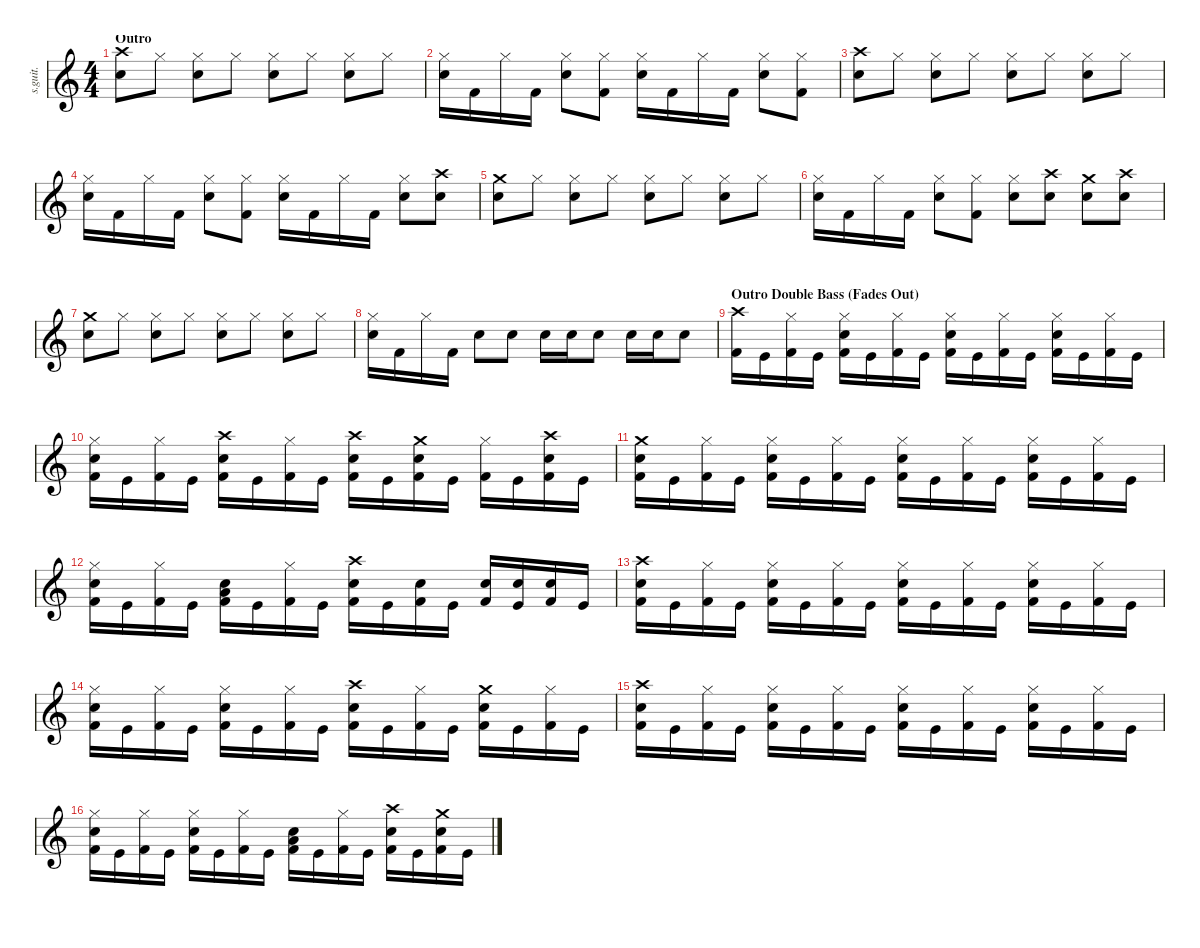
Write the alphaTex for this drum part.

\defaultSystemsLayout 4
\hideDynamics
\bracketExtendMode nobrackets
\track ("Drumkit" "s.guit.") {instrument percussion}
\staff {score}
\articulation defaults
\ts (4 4)
\section ("" "Outro")
\tempo (130 hide)
\clef g2
\ks c
("Crash high (hit)" "Snare (hit) 2").8{lyrics (0 "") lyrics (1 "") lyrics (2 "") lyrics (3 "") lyrics (4 "") dy f} "Hi-Hat (closed)".8{lyrics (0 "") lyrics (1 "") lyrics (2 "") lyrics (3 "") lyrics (4 "")} ("Hi-Hat (closed)" "Snare (hit) 2").8{lyrics (0 "") lyrics (1 "") lyrics (2 "") lyrics (3 "") lyrics (4 "")} "Hi-Hat (closed)".8{lyrics (0 "") lyrics (1 "") lyrics (2 "") lyrics (3 "") lyrics (4 "")} ("Hi-Hat (closed)" "Snare (hit) 2").8{lyrics (0 "") lyrics (1 "") lyrics (2 "") lyrics (3 "") lyrics (4 "")} "Hi-Hat (closed)".8{lyrics (0 "") lyrics (1 "") lyrics (2 "") lyrics (3 "") lyrics (4 "")} ("Hi-Hat (closed)" "Snare (hit) 2").8{lyrics (0 "") lyrics (1 "") lyrics (2 "") lyrics (3 "") lyrics (4 "")} "Hi-Hat (closed)".8{lyrics (0 "") lyrics (1 "") lyrics (2 "") lyrics (3 "") lyrics (4 "")} |
("Hi-Hat (closed)" "Snare (hit) 2").16{lyrics (0 "") lyrics (1 "") lyrics (2 "") lyrics (3 "") lyrics (4 "")} "Kick (hit) 2".16{lyrics (0 "") lyrics (1 "") lyrics (2 "") lyrics (3 "") lyrics (4 "")} "Hi-Hat (closed)".16{lyrics (0 "") lyrics (1 "") lyrics (2 "") lyrics (3 "") lyrics (4 "")} "Kick (hit) 2".16{lyrics (0 "") lyrics (1 "") lyrics (2 "") lyrics (3 "") lyrics (4 "")} ("Hi-Hat (closed)" "Snare (hit) 2").8{lyrics (0 "") lyrics (1 "") lyrics (2 "") lyrics (3 "") lyrics (4 "")} ("Hi-Hat (closed)" "Kick (hit) 2").8{lyrics (0 "") lyrics (1 "") lyrics (2 "") lyrics (3 "") lyrics (4 "")} ("Hi-Hat (closed)" "Snare (hit) 2").16{lyrics (0 "") lyrics (1 "") lyrics (2 "") lyrics (3 "") lyrics (4 "")} "Kick (hit) 2".16{lyrics (0 "") lyrics (1 "") lyrics (2 "") lyrics (3 "") lyrics (4 "")} "Hi-Hat (closed)".16{lyrics (0 "") lyrics (1 "") lyrics (2 "") lyrics (3 "") lyrics (4 "")} "Kick (hit) 2".16{lyrics (0 "") lyrics (1 "") lyrics (2 "") lyrics (3 "") lyrics (4 "")} ("Hi-Hat (closed)" "Snare (hit) 2").8{lyrics (0 "") lyrics (1 "") lyrics (2 "") lyrics (3 "") lyrics (4 "")} ("Hi-Hat (closed)" "Kick (hit) 2").8{lyrics (0 "") lyrics (1 "") lyrics (2 "") lyrics (3 "") lyrics (4 "")} |
("Crash high (hit)" "Snare (hit) 2").8{lyrics (0 "") lyrics (1 "") lyrics (2 "") lyrics (3 "") lyrics (4 "")} "Hi-Hat (closed)".8{lyrics (0 "") lyrics (1 "") lyrics (2 "") lyrics (3 "") lyrics (4 "")} ("Hi-Hat (closed)" "Snare (hit) 2").8{lyrics (0 "") lyrics (1 "") lyrics (2 "") lyrics (3 "") lyrics (4 "")} "Hi-Hat (closed)".8{lyrics (0 "") lyrics (1 "") lyrics (2 "") lyrics (3 "") lyrics (4 "")} ("Hi-Hat (closed)" "Snare (hit) 2").8{lyrics (0 "") lyrics (1 "") lyrics (2 "") lyrics (3 "") lyrics (4 "")} "Hi-Hat (closed)".8{lyrics (0 "") lyrics (1 "") lyrics (2 "") lyrics (3 "") lyrics (4 "")} ("Hi-Hat (closed)" "Snare (hit) 2").8{lyrics (0 "") lyrics (1 "") lyrics (2 "") lyrics (3 "") lyrics (4 "")} "Hi-Hat (closed)".8{lyrics (0 "") lyrics (1 "") lyrics (2 "") lyrics (3 "") lyrics (4 "")} |
("Hi-Hat (closed)" "Snare (hit) 2").16{lyrics (0 "") lyrics (1 "") lyrics (2 "") lyrics (3 "") lyrics (4 "")} "Kick (hit) 2".16{lyrics (0 "") lyrics (1 "") lyrics (2 "") lyrics (3 "") lyrics (4 "")} "Hi-Hat (closed)".16{lyrics (0 "") lyrics (1 "") lyrics (2 "") lyrics (3 "") lyrics (4 "")} "Kick (hit) 2".16{lyrics (0 "") lyrics (1 "") lyrics (2 "") lyrics (3 "") lyrics (4 "")} ("Hi-Hat (closed)" "Snare (hit) 2").8{lyrics (0 "") lyrics (1 "") lyrics (2 "") lyrics (3 "") lyrics (4 "")} ("Hi-Hat (closed)" "Kick (hit) 2").8{lyrics (0 "") lyrics (1 "") lyrics (2 "") lyrics (3 "") lyrics (4 "")} ("Hi-Hat (closed)" "Snare (hit) 2").16{lyrics (0 "") lyrics (1 "") lyrics (2 "") lyrics (3 "") lyrics (4 "")} "Kick (hit) 2".16{lyrics (0 "") lyrics (1 "") lyrics (2 "") lyrics (3 "") lyrics (4 "")} "Hi-Hat (closed)".16{lyrics (0 "") lyrics (1 "") lyrics (2 "") lyrics (3 "") lyrics (4 "")} "Kick (hit) 2".16{lyrics (0 "") lyrics (1 "") lyrics (2 "") lyrics (3 "") lyrics (4 "")} ("Hi-Hat (closed)" "Snare (hit) 2").8{lyrics (0 "") lyrics (1 "") lyrics (2 "") lyrics (3 "") lyrics (4 "")} ("Crash high (hit)" "Snare (hit) 2").8{lyrics (0 "") lyrics (1 "") lyrics (2 "") lyrics (3 "") lyrics (4 "")} |
("Crash medium (hit)" "Snare (hit) 2").8{lyrics (0 "") lyrics (1 "") lyrics (2 "") lyrics (3 "") lyrics (4 "")} "Hi-Hat (closed)".8{lyrics (0 "") lyrics (1 "") lyrics (2 "") lyrics (3 "") lyrics (4 "")} ("Hi-Hat (closed)" "Snare (hit) 2").8{lyrics (0 "") lyrics (1 "") lyrics (2 "") lyrics (3 "") lyrics (4 "")} "Hi-Hat (closed)".8{lyrics (0 "") lyrics (1 "") lyrics (2 "") lyrics (3 "") lyrics (4 "")} ("Hi-Hat (closed)" "Snare (hit) 2").8{lyrics (0 "") lyrics (1 "") lyrics (2 "") lyrics (3 "") lyrics (4 "")} "Hi-Hat (closed)".8{lyrics (0 "") lyrics (1 "") lyrics (2 "") lyrics (3 "") lyrics (4 "")} ("Hi-Hat (closed)" "Snare (hit) 2").8{lyrics (0 "") lyrics (1 "") lyrics (2 "") lyrics (3 "") lyrics (4 "")} "Hi-Hat (closed)".8{lyrics (0 "") lyrics (1 "") lyrics (2 "") lyrics (3 "") lyrics (4 "")} |
("Hi-Hat (closed)" "Snare (hit) 2").16{lyrics (0 "") lyrics (1 "") lyrics (2 "") lyrics (3 "") lyrics (4 "")} "Kick (hit) 2".16{lyrics (0 "") lyrics (1 "") lyrics (2 "") lyrics (3 "") lyrics (4 "")} "Hi-Hat (closed)".16{lyrics (0 "") lyrics (1 "") lyrics (2 "") lyrics (3 "") lyrics (4 "")} "Kick (hit) 2".16{lyrics (0 "") lyrics (1 "") lyrics (2 "") lyrics (3 "") lyrics (4 "")} ("Hi-Hat (closed)" "Snare (hit) 2").8{lyrics (0 "") lyrics (1 "") lyrics (2 "") lyrics (3 "") lyrics (4 "")} ("Hi-Hat (closed)" "Kick (hit) 2").8{lyrics (0 "") lyrics (1 "") lyrics (2 "") lyrics (3 "") lyrics (4 "")} ("Hi-Hat (closed)" "Snare (hit) 2").8{lyrics (0 "") lyrics (1 "") lyrics (2 "") lyrics (3 "") lyrics (4 "")} ("Crash high (hit)" "Snare (hit) 2").8{lyrics (0 "") lyrics (1 "") lyrics (2 "") lyrics (3 "") lyrics (4 "")} ("Crash medium (hit)" "Snare (hit) 2").8{lyrics (0 "") lyrics (1 "") lyrics (2 "") lyrics (3 "") lyrics (4 "")} ("Crash high (hit)" "Snare (hit) 2").8{lyrics (0 "") lyrics (1 "") lyrics (2 "") lyrics (3 "") lyrics (4 "")} |
("Crash medium (hit)" "Snare (hit) 2").8{lyrics (0 "") lyrics (1 "") lyrics (2 "") lyrics (3 "") lyrics (4 "")} "Hi-Hat (closed)".8{lyrics (0 "") lyrics (1 "") lyrics (2 "") lyrics (3 "") lyrics (4 "")} ("Hi-Hat (closed)" "Snare (hit) 2").8{lyrics (0 "") lyrics (1 "") lyrics (2 "") lyrics (3 "") lyrics (4 "")} "Hi-Hat (closed)".8{lyrics (0 "") lyrics (1 "") lyrics (2 "") lyrics (3 "") lyrics (4 "")} ("Hi-Hat (closed)" "Snare (hit) 2").8{lyrics (0 "") lyrics (1 "") lyrics (2 "") lyrics (3 "") lyrics (4 "")} "Hi-Hat (closed)".8{lyrics (0 "") lyrics (1 "") lyrics (2 "") lyrics (3 "") lyrics (4 "")} ("Hi-Hat (closed)" "Snare (hit) 2").8{lyrics (0 "") lyrics (1 "") lyrics (2 "") lyrics (3 "") lyrics (4 "")} "Hi-Hat (closed)".8{lyrics (0 "") lyrics (1 "") lyrics (2 "") lyrics (3 "") lyrics (4 "")} |
("Hi-Hat (closed)" "Snare (hit) 2").16{lyrics (0 "") lyrics (1 "") lyrics (2 "") lyrics (3 "") lyrics (4 "")} "Kick (hit) 2".16{lyrics (0 "") lyrics (1 "") lyrics (2 "") lyrics (3 "") lyrics (4 "")} "Hi-Hat (closed)".16{lyrics (0 "") lyrics (1 "") lyrics (2 "") lyrics (3 "") lyrics (4 "")} "Kick (hit) 2".16{lyrics (0 "") lyrics (1 "") lyrics (2 "") lyrics (3 "") lyrics (4 "")} "Snare (hit) 2".8{lyrics (0 "") lyrics (1 "") lyrics (2 "") lyrics (3 "") lyrics (4 "")} "Snare (hit) 2".8{lyrics (0 "") lyrics (1 "") lyrics (2 "") lyrics (3 "") lyrics (4 "")} "Snare (hit) 2".16{lyrics (0 "") lyrics (1 "") lyrics (2 "") lyrics (3 "") lyrics (4 "")} "Snare (hit) 2".16{lyrics (0 "") lyrics (1 "") lyrics (2 "") lyrics (3 "") lyrics (4 "")} "Snare (hit) 2".8{lyrics (0 "") lyrics (1 "") lyrics (2 "") lyrics (3 "") lyrics (4 "")} "Snare (hit) 2".16{lyrics (0 "") lyrics (1 "") lyrics (2 "") lyrics (3 "") lyrics (4 "")} "Snare (hit) 2".16{lyrics (0 "") lyrics (1 "") lyrics (2 "") lyrics (3 "") lyrics (4 "")} "Snare (hit) 2".8{lyrics (0 "") lyrics (1 "") lyrics (2 "") lyrics (3 "") lyrics (4 "")} |
\section ("" "Outro Double Bass (Fades Out)")
("Crash high (hit)" "Kick (hit) 2").16{lyrics (0 "") lyrics (1 "") lyrics (2 "") lyrics (3 "") lyrics (4 "")} "Kick (hit)".16{lyrics (0 "") lyrics (1 "") lyrics (2 "") lyrics (3 "") lyrics (4 "")} ("Hi-Hat (closed)" "Kick (hit) 2").16{lyrics (0 "") lyrics (1 "") lyrics (2 "") lyrics (3 "") lyrics (4 "")} "Kick (hit)".16{lyrics (0 "") lyrics (1 "") lyrics (2 "") lyrics (3 "") lyrics (4 "")} ("Hi-Hat (closed)" "Snare (hit) 2" "Kick (hit) 2").16{lyrics (0 "") lyrics (1 "") lyrics (2 "") lyrics (3 "") lyrics (4 "")} "Kick (hit)".16{lyrics (0 "") lyrics (1 "") lyrics (2 "") lyrics (3 "") lyrics (4 "")} ("Hi-Hat (closed)" "Kick (hit) 2").16{lyrics (0 "") lyrics (1 "") lyrics (2 "") lyrics (3 "") lyrics (4 "")} "Kick (hit)".16{lyrics (0 "") lyrics (1 "") lyrics (2 "") lyrics (3 "") lyrics (4 "")} ("Hi-Hat (closed)" "Snare (hit) 2" "Kick (hit) 2").16{lyrics (0 "") lyrics (1 "") lyrics (2 "") lyrics (3 "") lyrics (4 "")} "Kick (hit)".16{lyrics (0 "") lyrics (1 "") lyrics (2 "") lyrics (3 "") lyrics (4 "")} ("Hi-Hat (closed)" "Kick (hit) 2").16{lyrics (0 "") lyrics (1 "") lyrics (2 "") lyrics (3 "") lyrics (4 "")} "Kick (hit)".16{lyrics (0 "") lyrics (1 "") lyrics (2 "") lyrics (3 "") lyrics (4 "")} ("Hi-Hat (closed)" "Snare (hit) 2" "Kick (hit) 2").16{lyrics (0 "") lyrics (1 "") lyrics (2 "") lyrics (3 "") lyrics (4 "")} "Kick (hit)".16{lyrics (0 "") lyrics (1 "") lyrics (2 "") lyrics (3 "") lyrics (4 "")} ("Hi-Hat (closed)" "Kick (hit) 2").16{lyrics (0 "") lyrics (1 "") lyrics (2 "") lyrics (3 "") lyrics (4 "")} "Kick (hit)".16{lyrics (0 "") lyrics (1 "") lyrics (2 "") lyrics (3 "") lyrics (4 "")} |
("Hi-Hat (closed)" "Snare (hit) 2" "Kick (hit) 2").16{lyrics (0 "") lyrics (1 "") lyrics (2 "") lyrics (3 "") lyrics (4 "")} "Kick (hit)".16{lyrics (0 "") lyrics (1 "") lyrics (2 "") lyrics (3 "") lyrics (4 "")} ("Hi-Hat (closed)" "Kick (hit) 2").16{lyrics (0 "") lyrics (1 "") lyrics (2 "") lyrics (3 "") lyrics (4 "")} "Kick (hit)".16{lyrics (0 "") lyrics (1 "") lyrics (2 "") lyrics (3 "") lyrics (4 "")} ("Crash high (hit)" "Snare (hit) 2" "Kick (hit) 2").16{lyrics (0 "") lyrics (1 "") lyrics (2 "") lyrics (3 "") lyrics (4 "")} "Kick (hit)".16{lyrics (0 "") lyrics (1 "") lyrics (2 "") lyrics (3 "") lyrics (4 "")} ("Hi-Hat (closed)" "Kick (hit) 2").16{lyrics (0 "") lyrics (1 "") lyrics (2 "") lyrics (3 "") lyrics (4 "")} "Kick (hit)".16{lyrics (0 "") lyrics (1 "") lyrics (2 "") lyrics (3 "") lyrics (4 "")} ("Crash high (hit)" "Snare (hit) 2" "Kick (hit) 2").16{lyrics (0 "") lyrics (1 "") lyrics (2 "") lyrics (3 "") lyrics (4 "")} "Kick (hit)".16{lyrics (0 "") lyrics (1 "") lyrics (2 "") lyrics (3 "") lyrics (4 "")} ("Crash medium (hit)" "Snare (hit) 2" "Kick (hit) 2").16{lyrics (0 "") lyrics (1 "") lyrics (2 "") lyrics (3 "") lyrics (4 "")} "Kick (hit)".16{lyrics (0 "") lyrics (1 "") lyrics (2 "") lyrics (3 "") lyrics (4 "")} ("Hi-Hat (closed)" "Kick (hit) 2").16{lyrics (0 "") lyrics (1 "") lyrics (2 "") lyrics (3 "") lyrics (4 "")} "Kick (hit)".16{lyrics (0 "") lyrics (1 "") lyrics (2 "") lyrics (3 "") lyrics (4 "")} ("Crash high (hit)" "Snare (hit) 2" "Kick (hit) 2").16{lyrics (0 "") lyrics (1 "") lyrics (2 "") lyrics (3 "") lyrics (4 "")} "Kick (hit)".16{lyrics (0 "") lyrics (1 "") lyrics (2 "") lyrics (3 "") lyrics (4 "")} |
("Crash medium (hit)" "Snare (hit) 2" "Kick (hit) 2").16{lyrics (0 "") lyrics (1 "") lyrics (2 "") lyrics (3 "") lyrics (4 "")} "Kick (hit)".16{lyrics (0 "") lyrics (1 "") lyrics (2 "") lyrics (3 "") lyrics (4 "")} ("Hi-Hat (closed)" "Kick (hit) 2").16{lyrics (0 "") lyrics (1 "") lyrics (2 "") lyrics (3 "") lyrics (4 "")} "Kick (hit)".16{lyrics (0 "") lyrics (1 "") lyrics (2 "") lyrics (3 "") lyrics (4 "")} ("Hi-Hat (closed)" "Snare (hit) 2" "Kick (hit) 2").16{lyrics (0 "") lyrics (1 "") lyrics (2 "") lyrics (3 "") lyrics (4 "")} "Kick (hit)".16{lyrics (0 "") lyrics (1 "") lyrics (2 "") lyrics (3 "") lyrics (4 "")} ("Hi-Hat (closed)" "Kick (hit) 2").16{lyrics (0 "") lyrics (1 "") lyrics (2 "") lyrics (3 "") lyrics (4 "")} "Kick (hit)".16{lyrics (0 "") lyrics (1 "") lyrics (2 "") lyrics (3 "") lyrics (4 "")} ("Hi-Hat (closed)" "Snare (hit) 2" "Kick (hit) 2").16{lyrics (0 "") lyrics (1 "") lyrics (2 "") lyrics (3 "") lyrics (4 "")} "Kick (hit)".16{lyrics (0 "") lyrics (1 "") lyrics (2 "") lyrics (3 "") lyrics (4 "")} ("Hi-Hat (closed)" "Kick (hit) 2").16{lyrics (0 "") lyrics (1 "") lyrics (2 "") lyrics (3 "") lyrics (4 "")} "Kick (hit)".16{lyrics (0 "") lyrics (1 "") lyrics (2 "") lyrics (3 "") lyrics (4 "")} ("Hi-Hat (closed)" "Snare (hit) 2" "Kick (hit) 2").16{lyrics (0 "") lyrics (1 "") lyrics (2 "") lyrics (3 "") lyrics (4 "")} "Kick (hit)".16{lyrics (0 "") lyrics (1 "") lyrics (2 "") lyrics (3 "") lyrics (4 "")} ("Hi-Hat (closed)" "Kick (hit) 2").16{lyrics (0 "") lyrics (1 "") lyrics (2 "") lyrics (3 "") lyrics (4 "")} "Kick (hit)".16{lyrics (0 "") lyrics (1 "") lyrics (2 "") lyrics (3 "") lyrics (4 "")} |
("Hi-Hat (closed)" "Snare (hit) 2" "Kick (hit) 2").16{lyrics (0 "") lyrics (1 "") lyrics (2 "") lyrics (3 "") lyrics (4 "")} "Kick (hit)".16{lyrics (0 "") lyrics (1 "") lyrics (2 "") lyrics (3 "") lyrics (4 "")} ("Hi-Hat (closed)" "Kick (hit) 2").16{lyrics (0 "") lyrics (1 "") lyrics (2 "") lyrics (3 "") lyrics (4 "")} "Kick (hit)".16{lyrics (0 "") lyrics (1 "") lyrics (2 "") lyrics (3 "") lyrics (4 "")} ("Low Tom (hit)" "Snare (hit) 2" "Kick (hit) 2").16{lyrics (0 "") lyrics (1 "") lyrics (2 "") lyrics (3 "") lyrics (4 "")} "Kick (hit)".16{lyrics (0 "") lyrics (1 "") lyrics (2 "") lyrics (3 "") lyrics (4 "")} ("Hi-Hat (closed)" "Kick (hit) 2").16{lyrics (0 "") lyrics (1 "") lyrics (2 "") lyrics (3 "") lyrics (4 "")} "Kick (hit)".16{lyrics (0 "") lyrics (1 "") lyrics (2 "") lyrics (3 "") lyrics (4 "")} ("Crash high (hit)" "Snare (hit) 2" "Kick (hit) 2").16{lyrics (0 "") lyrics (1 "") lyrics (2 "") lyrics (3 "") lyrics (4 "")} "Kick (hit)".16{lyrics (0 "") lyrics (1 "") lyrics (2 "") lyrics (3 "") lyrics (4 "")} ("Snare (hit) 2" "Kick (hit) 2").16{lyrics (0 "") lyrics (1 "") lyrics (2 "") lyrics (3 "") lyrics (4 "")} "Kick (hit)".16{lyrics (0 "") lyrics (1 "") lyrics (2 "") lyrics (3 "") lyrics (4 "")} ("Snare (hit) 2" "Kick (hit) 2").16{lyrics (0 "") lyrics (1 "") lyrics (2 "") lyrics (3 "") lyrics (4 "")} ("Snare (hit) 2" "Kick (hit)").16{lyrics (0 "") lyrics (1 "") lyrics (2 "") lyrics (3 "") lyrics (4 "")} ("Snare (hit) 2" "Kick (hit) 2").16{lyrics (0 "") lyrics (1 "") lyrics (2 "") lyrics (3 "") lyrics (4 "")} "Kick (hit)".16{lyrics (0 "") lyrics (1 "") lyrics (2 "") lyrics (3 "") lyrics (4 "")} |
("Crash high (hit)" "Snare (hit) 2" "Kick (hit) 2").16{lyrics (0 "") lyrics (1 "") lyrics (2 "") lyrics (3 "") lyrics (4 "")} "Kick (hit)".16{lyrics (0 "") lyrics (1 "") lyrics (2 "") lyrics (3 "") lyrics (4 "")} ("Hi-Hat (closed)" "Kick (hit) 2").16{lyrics (0 "") lyrics (1 "") lyrics (2 "") lyrics (3 "") lyrics (4 "")} "Kick (hit)".16{lyrics (0 "") lyrics (1 "") lyrics (2 "") lyrics (3 "") lyrics (4 "")} ("Hi-Hat (closed)" "Snare (hit) 2" "Kick (hit) 2").16{lyrics (0 "") lyrics (1 "") lyrics (2 "") lyrics (3 "") lyrics (4 "")} "Kick (hit)".16{lyrics (0 "") lyrics (1 "") lyrics (2 "") lyrics (3 "") lyrics (4 "")} ("Hi-Hat (closed)" "Kick (hit) 2").16{lyrics (0 "") lyrics (1 "") lyrics (2 "") lyrics (3 "") lyrics (4 "")} "Kick (hit)".16{lyrics (0 "") lyrics (1 "") lyrics (2 "") lyrics (3 "") lyrics (4 "")} ("Hi-Hat (closed)" "Snare (hit) 2" "Kick (hit) 2").16{lyrics (0 "") lyrics (1 "") lyrics (2 "") lyrics (3 "") lyrics (4 "")} "Kick (hit)".16{lyrics (0 "") lyrics (1 "") lyrics (2 "") lyrics (3 "") lyrics (4 "")} ("Hi-Hat (closed)" "Kick (hit) 2").16{lyrics (0 "") lyrics (1 "") lyrics (2 "") lyrics (3 "") lyrics (4 "")} "Kick (hit)".16{lyrics (0 "") lyrics (1 "") lyrics (2 "") lyrics (3 "") lyrics (4 "")} ("Hi-Hat (closed)" "Snare (hit) 2" "Kick (hit) 2").16{lyrics (0 "") lyrics (1 "") lyrics (2 "") lyrics (3 "") lyrics (4 "")} "Kick (hit)".16{lyrics (0 "") lyrics (1 "") lyrics (2 "") lyrics (3 "") lyrics (4 "")} ("Hi-Hat (closed)" "Kick (hit) 2").16{lyrics (0 "") lyrics (1 "") lyrics (2 "") lyrics (3 "") lyrics (4 "")} "Kick (hit)".16{lyrics (0 "") lyrics (1 "") lyrics (2 "") lyrics (3 "") lyrics (4 "")} |
("Hi-Hat (closed)" "Snare (hit) 2" "Kick (hit) 2").16{lyrics (0 "") lyrics (1 "") lyrics (2 "") lyrics (3 "") lyrics (4 "")} "Kick (hit)".16{lyrics (0 "") lyrics (1 "") lyrics (2 "") lyrics (3 "") lyrics (4 "")} ("Hi-Hat (closed)" "Kick (hit) 2").16{lyrics (0 "") lyrics (1 "") lyrics (2 "") lyrics (3 "") lyrics (4 "")} "Kick (hit)".16{lyrics (0 "") lyrics (1 "") lyrics (2 "") lyrics (3 "") lyrics (4 "")} ("Hi-Hat (closed)" "Snare (hit) 2" "Kick (hit) 2").16{lyrics (0 "") lyrics (1 "") lyrics (2 "") lyrics (3 "") lyrics (4 "")} "Kick (hit)".16{lyrics (0 "") lyrics (1 "") lyrics (2 "") lyrics (3 "") lyrics (4 "")} ("Hi-Hat (closed)" "Kick (hit) 2").16{lyrics (0 "") lyrics (1 "") lyrics (2 "") lyrics (3 "") lyrics (4 "")} "Kick (hit)".16{lyrics (0 "") lyrics (1 "") lyrics (2 "") lyrics (3 "") lyrics (4 "")} ("Crash high (hit)" "Snare (hit) 2" "Kick (hit) 2").16{lyrics (0 "") lyrics (1 "") lyrics (2 "") lyrics (3 "") lyrics (4 "")} "Kick (hit)".16{lyrics (0 "") lyrics (1 "") lyrics (2 "") lyrics (3 "") lyrics (4 "")} ("Hi-Hat (closed)" "Kick (hit) 2").16{lyrics (0 "") lyrics (1 "") lyrics (2 "") lyrics (3 "") lyrics (4 "")} "Kick (hit)".16{lyrics (0 "") lyrics (1 "") lyrics (2 "") lyrics (3 "") lyrics (4 "")} ("Crash medium (hit)" "Snare (hit) 2" "Kick (hit) 2").16{lyrics (0 "") lyrics (1 "") lyrics (2 "") lyrics (3 "") lyrics (4 "")} "Kick (hit)".16{lyrics (0 "") lyrics (1 "") lyrics (2 "") lyrics (3 "") lyrics (4 "")} ("Hi-Hat (closed)" "Kick (hit) 2").16{lyrics (0 "") lyrics (1 "") lyrics (2 "") lyrics (3 "") lyrics (4 "")} "Kick (hit)".16{lyrics (0 "") lyrics (1 "") lyrics (2 "") lyrics (3 "") lyrics (4 "")} |
("Crash high (hit)" "Snare (hit) 2" "Kick (hit) 2").16{lyrics (0 "") lyrics (1 "") lyrics (2 "") lyrics (3 "") lyrics (4 "")} "Kick (hit)".16{lyrics (0 "") lyrics (1 "") lyrics (2 "") lyrics (3 "") lyrics (4 "")} ("Hi-Hat (closed)" "Kick (hit) 2").16{lyrics (0 "") lyrics (1 "") lyrics (2 "") lyrics (3 "") lyrics (4 "")} "Kick (hit)".16{lyrics (0 "") lyrics (1 "") lyrics (2 "") lyrics (3 "") lyrics (4 "")} ("Hi-Hat (closed)" "Snare (hit) 2" "Kick (hit) 2").16{lyrics (0 "") lyrics (1 "") lyrics (2 "") lyrics (3 "") lyrics (4 "")} "Kick (hit)".16{lyrics (0 "") lyrics (1 "") lyrics (2 "") lyrics (3 "") lyrics (4 "")} ("Hi-Hat (closed)" "Kick (hit) 2").16{lyrics (0 "") lyrics (1 "") lyrics (2 "") lyrics (3 "") lyrics (4 "")} "Kick (hit)".16{lyrics (0 "") lyrics (1 "") lyrics (2 "") lyrics (3 "") lyrics (4 "")} ("Hi-Hat (closed)" "Snare (hit) 2" "Kick (hit) 2").16{lyrics (0 "") lyrics (1 "") lyrics (2 "") lyrics (3 "") lyrics (4 "")} "Kick (hit)".16{lyrics (0 "") lyrics (1 "") lyrics (2 "") lyrics (3 "") lyrics (4 "")} ("Hi-Hat (closed)" "Kick (hit) 2").16{lyrics (0 "") lyrics (1 "") lyrics (2 "") lyrics (3 "") lyrics (4 "")} "Kick (hit)".16{lyrics (0 "") lyrics (1 "") lyrics (2 "") lyrics (3 "") lyrics (4 "")} ("Hi-Hat (closed)" "Snare (hit) 2" "Kick (hit) 2").16{lyrics (0 "") lyrics (1 "") lyrics (2 "") lyrics (3 "") lyrics (4 "")} "Kick (hit)".16{lyrics (0 "") lyrics (1 "") lyrics (2 "") lyrics (3 "") lyrics (4 "")} ("Hi-Hat (closed)" "Kick (hit) 2").16{lyrics (0 "") lyrics (1 "") lyrics (2 "") lyrics (3 "") lyrics (4 "")} "Kick (hit)".16{lyrics (0 "") lyrics (1 "") lyrics (2 "") lyrics (3 "") lyrics (4 "")} |
("Hi-Hat (closed)" "Snare (hit) 2" "Kick (hit) 2").16{lyrics (0 "") lyrics (1 "") lyrics (2 "") lyrics (3 "") lyrics (4 "")} "Kick (hit)".16{lyrics (0 "") lyrics (1 "") lyrics (2 "") lyrics (3 "") lyrics (4 "")} ("Hi-Hat (closed)" "Kick (hit) 2").16{lyrics (0 "") lyrics (1 "") lyrics (2 "") lyrics (3 "") lyrics (4 "")} "Kick (hit)".16{lyrics (0 "") lyrics (1 "") lyrics (2 "") lyrics (3 "") lyrics (4 "")} ("Hi-Hat (closed)" "Snare (hit) 2" "Kick (hit) 2").16{lyrics (0 "") lyrics (1 "") lyrics (2 "") lyrics (3 "") lyrics (4 "")} "Kick (hit)".16{lyrics (0 "") lyrics (1 "") lyrics (2 "") lyrics (3 "") lyrics (4 "")} ("Hi-Hat (closed)" "Kick (hit) 2").16{lyrics (0 "") lyrics (1 "") lyrics (2 "") lyrics (3 "") lyrics (4 "")} "Kick (hit)".16{lyrics (0 "") lyrics (1 "") lyrics (2 "") lyrics (3 "") lyrics (4 "")} ("Low Tom (hit)" "Snare (hit) 2" "Kick (hit) 2").16{lyrics (0 "") lyrics (1 "") lyrics (2 "") lyrics (3 "") lyrics (4 "")} "Kick (hit)".16{lyrics (0 "") lyrics (1 "") lyrics (2 "") lyrics (3 "") lyrics (4 "")} ("Hi-Hat (closed)" "Kick (hit) 2").16{lyrics (0 "") lyrics (1 "") lyrics (2 "") lyrics (3 "") lyrics (4 "")} "Kick (hit)".16{lyrics (0 "") lyrics (1 "") lyrics (2 "") lyrics (3 "") lyrics (4 "")} ("Crash high (hit)" "Snare (hit) 2" "Kick (hit) 2").16{lyrics (0 "") lyrics (1 "") lyrics (2 "") lyrics (3 "") lyrics (4 "")} "Kick (hit)".16{lyrics (0 "") lyrics (1 "") lyrics (2 "") lyrics (3 "") lyrics (4 "")} ("Crash medium (hit)" "Snare (hit) 2" "Kick (hit) 2").16{lyrics (0 "") lyrics (1 "") lyrics (2 "") lyrics (3 "") lyrics (4 "")} "Kick (hit)".16{lyrics (0 "") lyrics (1 "") lyrics (2 "") lyrics (3 "") lyrics (4 "")}
